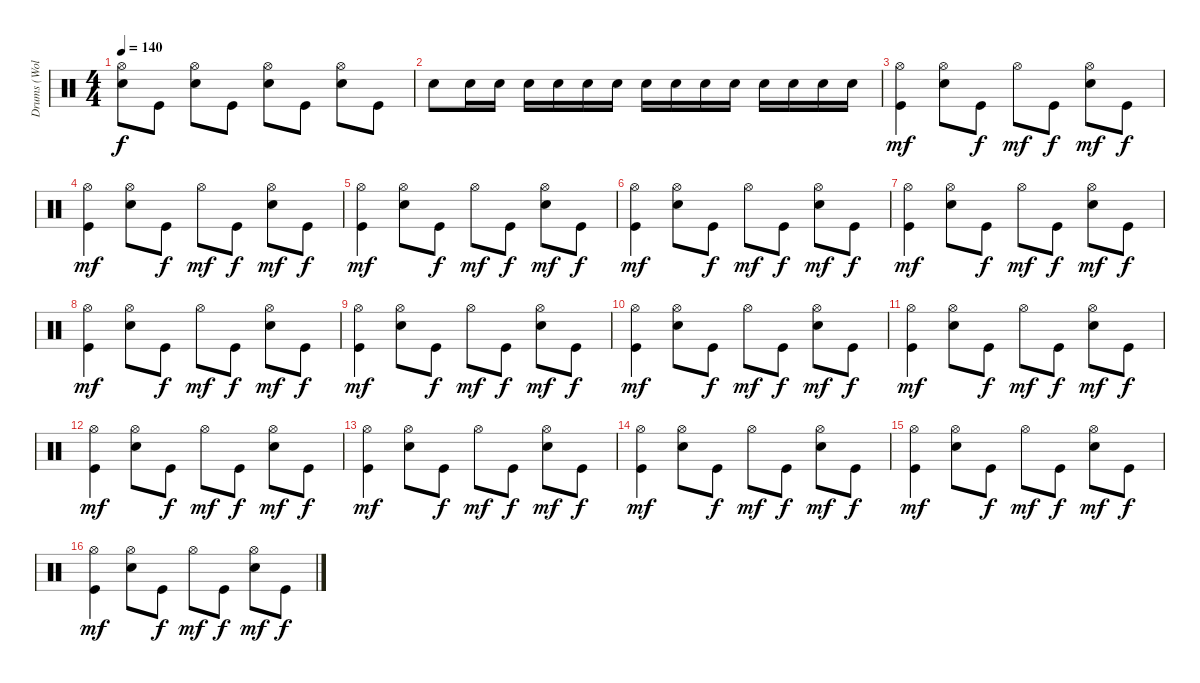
\track ("Drums (Wolf Simons)" "Drums (Wol") {instrument percussion}
\staff {score}
\articulation defaults
\ts (4 4)
\tempo 140
\clef neutral
\ks c
("Hi-Hat (open)" "Electric Snare (hit)").8{dy f} "Kick (hit)".8 ("Hi-Hat (open)" "Electric Snare (hit)").8 "Kick (hit)".8 ("Hi-Hat (open)" "Electric Snare (hit)").8 "Kick (hit)".8 ("Hi-Hat (open)" "Electric Snare (hit)").8 "Kick (hit)".8 |
"Electric Snare (hit)".8 "Electric Snare (hit)".16 "Electric Snare (hit)".16 "Electric Snare (hit)".16 "Electric Snare (hit)".16 "Electric Snare (hit)".16 "Electric Snare (hit)".16 "Electric Snare (hit)".16 "Electric Snare (hit)".16 "Electric Snare (hit)".16 "Electric Snare (hit)".16 "Electric Snare (hit)".16 "Electric Snare (hit)".16 "Electric Snare (hit)".16 "Electric Snare (hit)".16 |
("Kick (hit)" "Hi-Hat (open)").4{dy mf} ("Electric Snare (hit)" "Hi-Hat (open)").8 "Kick (hit)".8{dy f} "Hi-Hat (open)".8{dy mf} "Kick (hit)".8{dy f} ("Electric Snare (hit)" "Hi-Hat (open)").8{dy mf} "Kick (hit)".8{dy f} |
("Kick (hit)" "Hi-Hat (open)").4{dy mf} ("Electric Snare (hit)" "Hi-Hat (open)").8 "Kick (hit)".8{dy f} "Hi-Hat (open)".8{dy mf} "Kick (hit)".8{dy f} ("Electric Snare (hit)" "Hi-Hat (open)").8{dy mf} "Kick (hit)".8{dy f} |
("Kick (hit)" "Hi-Hat (open)").4{dy mf} ("Electric Snare (hit)" "Hi-Hat (open)").8 "Kick (hit)".8{dy f} "Hi-Hat (open)".8{dy mf} "Kick (hit)".8{dy f} ("Electric Snare (hit)" "Hi-Hat (open)").8{dy mf} "Kick (hit)".8{dy f} |
("Kick (hit)" "Hi-Hat (open)").4{dy mf} ("Electric Snare (hit)" "Hi-Hat (open)").8 "Kick (hit)".8{dy f} "Hi-Hat (open)".8{dy mf} "Kick (hit)".8{dy f} ("Electric Snare (hit)" "Hi-Hat (open)").8{dy mf} "Kick (hit)".8{dy f} |
("Kick (hit)" "Hi-Hat (open)").4{dy mf} ("Electric Snare (hit)" "Hi-Hat (open)").8 "Kick (hit)".8{dy f} "Hi-Hat (open)".8{dy mf} "Kick (hit)".8{dy f} ("Electric Snare (hit)" "Hi-Hat (open)").8{dy mf} "Kick (hit)".8{dy f} |
("Kick (hit)" "Hi-Hat (open)").4{dy mf} ("Electric Snare (hit)" "Hi-Hat (open)").8 "Kick (hit)".8{dy f} "Hi-Hat (open)".8{dy mf} "Kick (hit)".8{dy f} ("Electric Snare (hit)" "Hi-Hat (open)").8{dy mf} "Kick (hit)".8{dy f} |
("Kick (hit)" "Hi-Hat (open)").4{dy mf} ("Electric Snare (hit)" "Hi-Hat (open)").8 "Kick (hit)".8{dy f} "Hi-Hat (open)".8{dy mf} "Kick (hit)".8{dy f} ("Electric Snare (hit)" "Hi-Hat (open)").8{dy mf} "Kick (hit)".8{dy f} |
("Kick (hit)" "Hi-Hat (open)").4{dy mf} ("Electric Snare (hit)" "Hi-Hat (open)").8 "Kick (hit)".8{dy f} "Hi-Hat (open)".8{dy mf} "Kick (hit)".8{dy f} ("Electric Snare (hit)" "Hi-Hat (open)").8{dy mf} "Kick (hit)".8{dy f} |
("Kick (hit)" "Hi-Hat (open)").4{dy mf} ("Electric Snare (hit)" "Hi-Hat (open)").8 "Kick (hit)".8{dy f} "Hi-Hat (open)".8{dy mf} "Kick (hit)".8{dy f} ("Electric Snare (hit)" "Hi-Hat (open)").8{dy mf} "Kick (hit)".8{dy f} |
("Kick (hit)" "Hi-Hat (open)").4{dy mf} ("Electric Snare (hit)" "Hi-Hat (open)").8 "Kick (hit)".8{dy f} "Hi-Hat (open)".8{dy mf} "Kick (hit)".8{dy f} ("Electric Snare (hit)" "Hi-Hat (open)").8{dy mf} "Kick (hit)".8{dy f} |
("Kick (hit)" "Hi-Hat (open)").4{dy mf} ("Electric Snare (hit)" "Hi-Hat (open)").8 "Kick (hit)".8{dy f} "Hi-Hat (open)".8{dy mf} "Kick (hit)".8{dy f} ("Electric Snare (hit)" "Hi-Hat (open)").8{dy mf} "Kick (hit)".8{dy f} |
("Kick (hit)" "Hi-Hat (open)").4{dy mf} ("Electric Snare (hit)" "Hi-Hat (open)").8 "Kick (hit)".8{dy f} "Hi-Hat (open)".8{dy mf} "Kick (hit)".8{dy f} ("Electric Snare (hit)" "Hi-Hat (open)").8{dy mf} "Kick (hit)".8{dy f} |
("Kick (hit)" "Hi-Hat (open)").4{dy mf} ("Electric Snare (hit)" "Hi-Hat (open)").8 "Kick (hit)".8{dy f} "Hi-Hat (open)".8{dy mf} "Kick (hit)".8{dy f} ("Electric Snare (hit)" "Hi-Hat (open)").8{dy mf} "Kick (hit)".8{dy f} |
("Kick (hit)" "Hi-Hat (open)").4{dy mf} ("Electric Snare (hit)" "Hi-Hat (open)").8 "Kick (hit)".8{dy f} "Hi-Hat (open)".8{dy mf} "Kick (hit)".8{dy f} ("Electric Snare (hit)" "Hi-Hat (open)").8{dy mf} "Kick (hit)".8{dy f}
